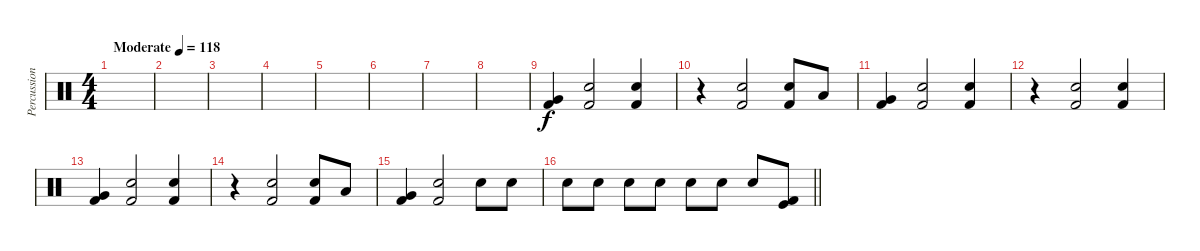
\track ("Percussion" "Percussion") {instrument percussion}
\staff {score}
\articulation defaults
\ts (4 4)
\tempo (118 "Moderate")
\clef neutral
\ks c
|
|
|
|
|
|
|
|
("Kick (hit) 2" "Very Low Tom (hit)").4 ("Electric Snare (hit)" "Kick (hit) 2").2 ("Electric Snare (hit)" "Kick (hit) 2").4 |
r.4 ("Electric Snare (hit)" "Kick (hit) 2").2 ("Electric Snare (hit)" "Kick (hit) 2").8 "Low Tom (hit)".8 |
("Kick (hit) 2" "Very Low Tom (hit)").4 ("Electric Snare (hit)" "Kick (hit) 2").2 ("Electric Snare (hit)" "Kick (hit) 2").4 |
r.4 ("Electric Snare (hit)" "Kick (hit) 2").2 ("Electric Snare (hit)" "Kick (hit) 2").4 |
("Kick (hit) 2" "Very Low Tom (hit)").4 ("Electric Snare (hit)" "Kick (hit) 2").2 ("Electric Snare (hit)" "Kick (hit) 2").4 |
r.4 ("Electric Snare (hit)" "Kick (hit) 2").2 ("Electric Snare (hit)" "Kick (hit) 2").8 "Low Tom (hit)".8 |
("Kick (hit) 2" "Very Low Tom (hit)").4 ("Electric Snare (hit)" "Kick (hit) 2").2 "Electric Snare (hit)".8{volume 1} "Electric Snare (hit)".8{volume 16} |
\barLineRight lightlight "Electric Snare (hit)".8 "Electric Snare (hit)".8 "Electric Snare (hit)".8 "Electric Snare (hit)".8 "Electric Snare (hit)".8 "Electric Snare (hit)".8 "Electric Snare (hit)".8
("Kick (hit)" "Kick (hit) 2").8
